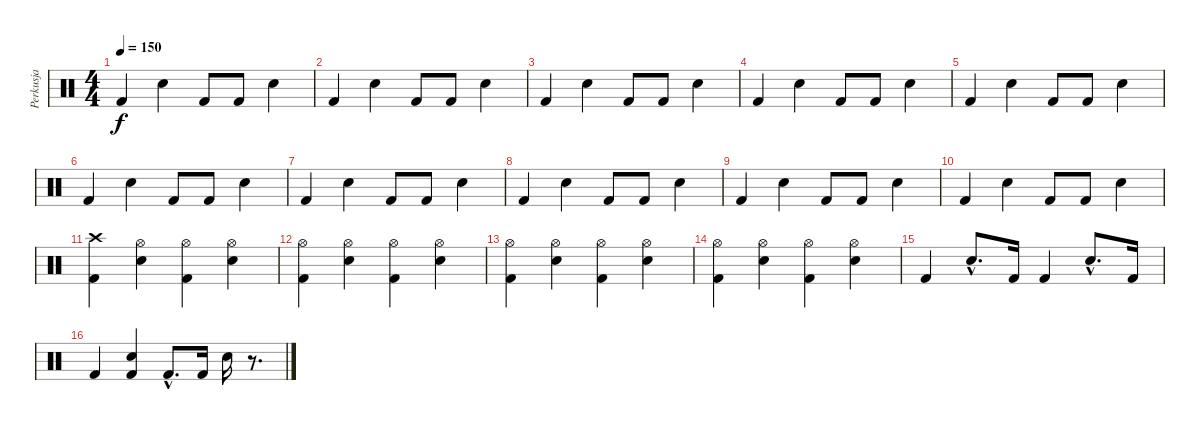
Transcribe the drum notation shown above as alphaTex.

\track ("Perkusja" "Perkusja") {instrument percussion}
\staff {score}
\articulation defaults
\ts (4 4)
\tempo 150
\clef neutral
\ks c "Kick (hit) 2".4{dy f} "Electric Snare (hit)".4 "Kick (hit) 2".8 "Kick (hit) 2".8 "Electric Snare (hit)".4
|
"Kick (hit) 2".4 "Electric Snare (hit)".4 "Kick (hit) 2".8 "Kick (hit) 2".8 "Electric Snare (hit)".4 |
"Kick (hit) 2".4 "Electric Snare (hit)".4 "Kick (hit) 2".8 "Kick (hit) 2".8 "Electric Snare (hit)".4 |
"Kick (hit) 2".4 "Electric Snare (hit)".4 "Kick (hit) 2".8 "Kick (hit) 2".8 "Electric Snare (hit)".4 |
"Kick (hit) 2".4 "Electric Snare (hit)".4 "Kick (hit) 2".8 "Kick (hit) 2".8 "Electric Snare (hit)".4 |
"Kick (hit) 2".4 "Electric Snare (hit)".4 "Kick (hit) 2".8 "Kick (hit) 2".8 "Electric Snare (hit)".4 |
"Kick (hit) 2".4 "Electric Snare (hit)".4 "Kick (hit) 2".8 "Kick (hit) 2".8 "Electric Snare (hit)".4 |
"Kick (hit) 2".4 "Electric Snare (hit)".4 "Kick (hit) 2".8 "Kick (hit) 2".8 "Electric Snare (hit)".4 |
"Kick (hit) 2".4 "Electric Snare (hit)".4 "Kick (hit) 2".8 "Kick (hit) 2".8 "Electric Snare (hit)".4 |
"Kick (hit) 2".4 "Electric Snare (hit)".4 "Kick (hit) 2".8 "Kick (hit) 2".8 "Electric Snare (hit)".4 |
("Crash high (hit)" "Kick (hit) 2").4 ("Hi-Hat (open)" "Electric Snare (hit)").4 ("Hi-Hat (open)" "Kick (hit) 2").4 ("Hi-Hat (open)" "Electric Snare (hit)").4 |
("Hi-Hat (open)" "Kick (hit) 2").4 ("Hi-Hat (open)" "Electric Snare (hit)").4 ("Hi-Hat (open)" "Kick (hit) 2").4 ("Hi-Hat (open)" "Electric Snare (hit)").4 |
("Hi-Hat (open)" "Kick (hit) 2").4 ("Hi-Hat (open)" "Electric Snare (hit)").4 ("Hi-Hat (open)" "Kick (hit) 2").4 ("Hi-Hat (open)" "Electric Snare (hit)").4 |
("Hi-Hat (open)" "Kick (hit) 2").4 ("Hi-Hat (open)" "Electric Snare (hit)").4 ("Hi-Hat (open)" "Kick (hit) 2").4 ("Hi-Hat (open)" "Electric Snare (hit)").4 |
"Kick (hit) 2".4 "Electric Snare (hit)"{hac}.8{d} "Kick (hit) 2".16 "Kick (hit) 2".4 "Electric Snare (hit)"{hac}.8{d} "Kick (hit) 2".16 |
"Kick (hit) 2".4 ("Electric Snare (hit)" "Kick (hit) 2").4 "Kick (hit) 2"{hac}.8{d} "Kick (hit) 2".16 "Electric Snare (hit)".16 r.8{d}
